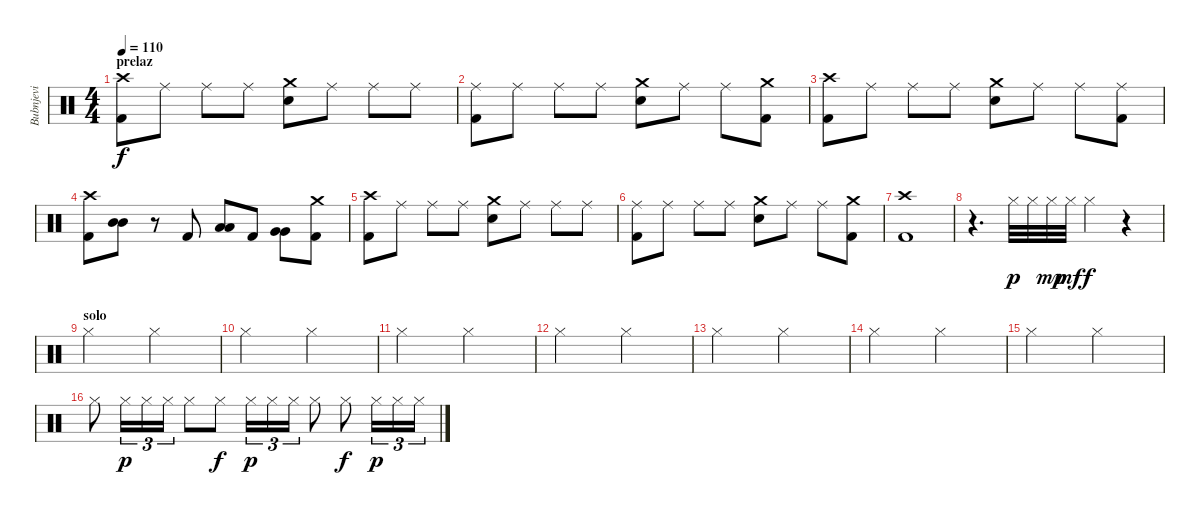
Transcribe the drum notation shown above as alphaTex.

\track ("Bubnjevi" "Bubnjevi") {instrument percussion}
\staff {score}
\articulation defaults
\ts (4 4)
\section ("" "prelaz")
\tempo 110
\clef neutral
\ks c
("Crash high (hit)" "Kick (hit) 2").8{dy f} "Ride (middle)".8 "Ride (middle)".8 "Ride (middle)".8 ("Crash medium (hit)" "Electric Snare (hit)").8 "Ride (middle)".8 "Ride (middle)".8 "Ride (middle)".8 |
("Ride (middle)" "Kick (hit) 2").8 "Ride (middle)".8 "Ride (middle)".8 "Ride (middle)".8 ("Crash medium (hit)" "Electric Snare (hit)").8 "Ride (middle)".8 "Ride (middle)".8 ("Crash medium (hit)" "Kick (hit) 2").8 |
("Crash high (hit)" "Kick (hit) 2").8 "Ride (middle)".8 "Ride (middle)".8 "Ride (middle)".8 ("Crash medium (hit)" "Electric Snare (hit)").8 "Ride (middle)".8 "Ride (middle)".8 ("Ride (middle)" "Kick (hit) 2").8 |
("Crash high (hit)" "Kick (hit) 2").8 ("Mid Tom (hit)" "Mid Tom (hit)").8{bd 120} r.8 "Kick (hit) 2".8 ("Low Tom (hit)" "Low Tom (hit)").8{bd 120} "Kick (hit) 2".8 ("Very Low Tom (hit)" "Very Low Tom (hit)").8{bd 120} ("Crash medium (hit)" "Kick (hit) 2").8 |
("Crash high (hit)" "Kick (hit) 2").8 "Ride (middle)".8 "Ride (middle)".8 "Ride (middle)".8 ("Crash medium (hit)" "Electric Snare (hit)").8 "Ride (middle)".8 "Ride (middle)".8 "Ride (middle)".8 |
("Ride (middle)" "Kick (hit) 2").8 "Ride (middle)".8 "Ride (middle)".8 "Ride (middle)".8 ("Crash medium (hit)" "Electric Snare (hit)").8 "Ride (middle)".8 "Ride (middle)".8 ("Crash medium (hit)" "Kick (hit) 2").8 |
("Crash high (hit)" "Kick (hit) 2").1 |
r.4{d} "Hi-Hat (closed)".32{dy p} "Hi-Hat (closed)".32 "Hi-Hat (closed)".32{dy mp} "Hi-Hat (closed)".32{dy mf} "Hi-Hat (closed)".4{dy f} r.4 |
\section ("" "solo")
"Hi-Hat (closed)".2 "Hi-Hat (closed)".2 |
"Hi-Hat (closed)".2 "Hi-Hat (closed)".2 |
"Hi-Hat (closed)".2 "Hi-Hat (closed)".2 |
"Hi-Hat (closed)".2 "Hi-Hat (closed)".2 |
"Hi-Hat (closed)".2 "Hi-Hat (closed)".2 |
"Hi-Hat (closed)".2 "Hi-Hat (closed)".2 |
"Hi-Hat (closed)".2 "Hi-Hat (closed)".2 |
"Hi-Hat (closed)".8 "Hi-Hat (closed)".16{tu (3 2) dy p} "Hi-Hat (closed)".16{tu (3 2)} "Hi-Hat (closed)".16{tu (3 2)} "Hi-Hat (closed)".8 "Hi-Hat (closed)".8{dy f} "Hi-Hat (closed)".16{tu (3 2) dy p} "Hi-Hat (closed)".16{tu (3 2)} "Hi-Hat (closed)".16{tu (3 2)} "Hi-Hat (closed)".8 "Hi-Hat (closed)".8{dy f} "Hi-Hat (closed)".16{tu (3 2) dy p} "Hi-Hat (closed)".16{tu (3 2)} "Hi-Hat (closed)".16{tu (3 2)}
